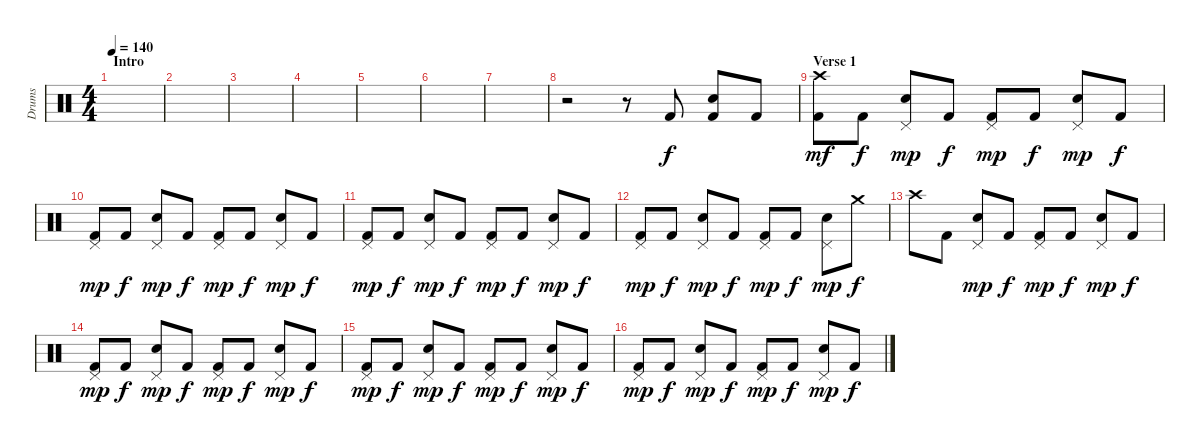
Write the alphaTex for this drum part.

\track ("Drums" "Drums") {instrument percussion}
\staff {score}
\articulation defaults
\ts (4 4)
\section ("" "Intro")
\tempo 140
\clef neutral
\ks c
|
|
|
|
|
|
|
r.2 r.8 "Kick (hit) 2".8 ("Snare (hit) 2" "Kick (hit) 2").8 "Kick (hit) 2".8 |
\section ("" "Verse 1")
("Crash high (hit)" "Kick (hit) 2").8{dy mf} "Kick (hit) 2".8{dy f} ("Pedal Hi-Hat (hit)" "Snare (hit) 2").8{dy mp} "Kick (hit) 2".8{dy f} ("Pedal Hi-Hat (hit)" "Kick (hit) 2").8{dy mp} "Kick (hit) 2".8{dy f} ("Pedal Hi-Hat (hit)" "Snare (hit) 2").8{dy mp} "Kick (hit) 2".8{dy f} |
("Pedal Hi-Hat (hit)" "Kick (hit) 2").8{dy mp} "Kick (hit) 2".8{dy f} ("Pedal Hi-Hat (hit)" "Snare (hit) 2").8{dy mp} "Kick (hit) 2".8{dy f} ("Pedal Hi-Hat (hit)" "Kick (hit) 2").8{dy mp} "Kick (hit) 2".8{dy f} ("Pedal Hi-Hat (hit)" "Snare (hit) 2").8{dy mp} "Kick (hit) 2".8{dy f} |
("Pedal Hi-Hat (hit)" "Kick (hit) 2").8{dy mp} "Kick (hit) 2".8{dy f} ("Pedal Hi-Hat (hit)" "Snare (hit) 2").8{dy mp} "Kick (hit) 2".8{dy f} ("Pedal Hi-Hat (hit)" "Kick (hit) 2").8{dy mp} "Kick (hit) 2".8{dy f} ("Pedal Hi-Hat (hit)" "Snare (hit) 2").8{dy mp} "Kick (hit) 2".8{dy f} |
("Pedal Hi-Hat (hit)" "Kick (hit) 2").8{dy mp} "Kick (hit) 2".8{dy f} ("Pedal Hi-Hat (hit)" "Snare (hit) 2").8{dy mp} "Kick (hit) 2".8{dy f} ("Pedal Hi-Hat (hit)" "Kick (hit) 2").8{dy mp} "Kick (hit) 2".8{dy f} ("Pedal Hi-Hat (hit)" "Snare (hit) 2").8{dy mp} "Crash medium (hit)".8{dy f} |
"Crash high (hit)".8 "Kick (hit) 2".8 ("Pedal Hi-Hat (hit)" "Snare (hit) 2").8{dy mp} "Kick (hit) 2".8{dy f} ("Pedal Hi-Hat (hit)" "Kick (hit) 2").8{dy mp} "Kick (hit) 2".8{dy f} ("Pedal Hi-Hat (hit)" "Snare (hit) 2").8{dy mp} "Kick (hit) 2".8{dy f} |
("Pedal Hi-Hat (hit)" "Kick (hit) 2").8{dy mp} "Kick (hit) 2".8{dy f} ("Pedal Hi-Hat (hit)" "Snare (hit) 2").8{dy mp} "Kick (hit) 2".8{dy f} ("Pedal Hi-Hat (hit)" "Kick (hit) 2").8{dy mp} "Kick (hit) 2".8{dy f} ("Pedal Hi-Hat (hit)" "Snare (hit) 2").8{dy mp} "Kick (hit) 2".8{dy f} |
("Pedal Hi-Hat (hit)" "Kick (hit) 2").8{dy mp} "Kick (hit) 2".8{dy f} ("Pedal Hi-Hat (hit)" "Snare (hit) 2").8{dy mp} "Kick (hit) 2".8{dy f} ("Pedal Hi-Hat (hit)" "Kick (hit) 2").8{dy mp} "Kick (hit) 2".8{dy f} ("Pedal Hi-Hat (hit)" "Snare (hit) 2").8{dy mp} "Kick (hit) 2".8{dy f} |
("Pedal Hi-Hat (hit)" "Kick (hit) 2").8{dy mp} "Kick (hit) 2".8{dy f} ("Pedal Hi-Hat (hit)" "Snare (hit) 2").8{dy mp} "Kick (hit) 2".8{dy f} ("Pedal Hi-Hat (hit)" "Kick (hit) 2").8{dy mp} "Kick (hit) 2".8{dy f} ("Pedal Hi-Hat (hit)" "Snare (hit) 2").8{dy mp} "Kick (hit) 2".8{dy f}
